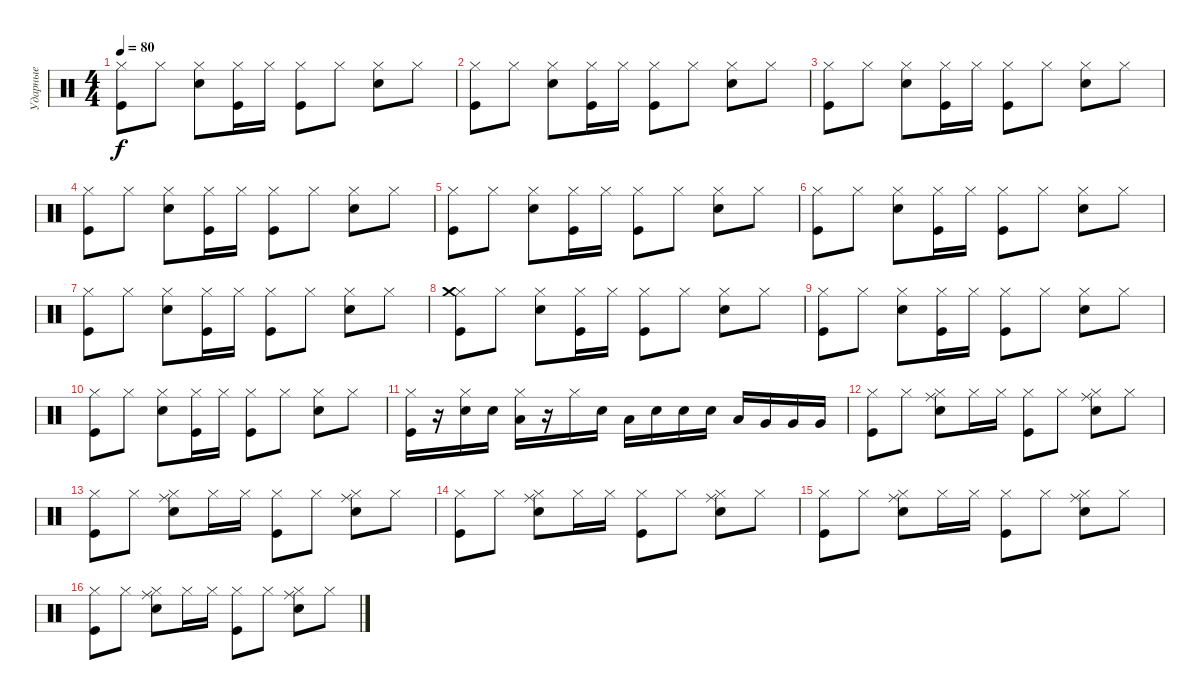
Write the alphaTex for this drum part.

\track ("Ударные" "Ударные") {instrument percussion}
\staff {score}
\articulation defaults
\ts (4 4)
\tempo 80
\clef neutral
\ks c
("Kick (hit)" "Hi-Hat (closed)").8{dy f} "Hi-Hat (closed)".8 ("Snare (hit) 2" "Hi-Hat (closed)").8 ("Kick (hit)" "Hi-Hat (closed)").16 "Hi-Hat (closed)".16 ("Kick (hit)" "Hi-Hat (closed)").8 "Hi-Hat (closed)".8 ("Snare (hit) 2" "Hi-Hat (closed)").8 "Hi-Hat (closed)".8 |
("Kick (hit)" "Hi-Hat (closed)").8 "Hi-Hat (closed)".8 ("Snare (hit) 2" "Hi-Hat (closed)").8 ("Kick (hit)" "Hi-Hat (closed)").16 "Hi-Hat (closed)".16 ("Kick (hit)" "Hi-Hat (closed)").8 "Hi-Hat (closed)".8 ("Snare (hit) 2" "Hi-Hat (closed)").8 "Hi-Hat (closed)".8 |
("Kick (hit)" "Hi-Hat (closed)").8 "Hi-Hat (closed)".8 ("Snare (hit) 2" "Hi-Hat (closed)").8 ("Kick (hit)" "Hi-Hat (closed)").16 "Hi-Hat (closed)".16 ("Kick (hit)" "Hi-Hat (closed)").8 "Hi-Hat (closed)".8 ("Snare (hit) 2" "Hi-Hat (closed)").8 "Hi-Hat (closed)".8 |
("Kick (hit)" "Hi-Hat (closed)").8 "Hi-Hat (closed)".8 ("Snare (hit) 2" "Hi-Hat (closed)").8 ("Kick (hit)" "Hi-Hat (closed)").16 "Hi-Hat (closed)".16 ("Kick (hit)" "Hi-Hat (closed)").8 "Hi-Hat (closed)".8 ("Snare (hit) 2" "Hi-Hat (closed)").8 "Hi-Hat (closed)".8 |
("Kick (hit)" "Hi-Hat (closed)").8 "Hi-Hat (closed)".8 ("Snare (hit) 2" "Hi-Hat (closed)").8 ("Kick (hit)" "Hi-Hat (closed)").16 "Hi-Hat (closed)".16 ("Kick (hit)" "Hi-Hat (closed)").8 "Hi-Hat (closed)".8 ("Snare (hit) 2" "Hi-Hat (closed)").8 "Hi-Hat (closed)".8 |
("Kick (hit)" "Hi-Hat (closed)").8 "Hi-Hat (closed)".8 ("Snare (hit) 2" "Hi-Hat (closed)").8 ("Kick (hit)" "Hi-Hat (closed)").16 "Hi-Hat (closed)".16 ("Kick (hit)" "Hi-Hat (closed)").8 "Hi-Hat (closed)".8 ("Snare (hit) 2" "Hi-Hat (closed)").8 "Hi-Hat (closed)".8 |
("Kick (hit)" "Hi-Hat (closed)").8 "Hi-Hat (closed)".8 ("Snare (hit) 2" "Hi-Hat (closed)").8 ("Kick (hit)" "Hi-Hat (closed)").16 "Hi-Hat (closed)".16 ("Kick (hit)" "Hi-Hat (closed)").8 "Hi-Hat (closed)".8 ("Snare (hit) 2" "Hi-Hat (closed)").8 "Hi-Hat (closed)".8 |
("Kick (hit)" "Hi-Hat (closed)" "Crash medium (hit)").8 "Hi-Hat (closed)".8 ("Snare (hit) 2" "Hi-Hat (closed)").8 ("Kick (hit)" "Hi-Hat (closed)").16 "Hi-Hat (closed)".16 ("Kick (hit)" "Hi-Hat (closed)").8 "Hi-Hat (closed)".8 ("Snare (hit) 2" "Hi-Hat (closed)").8 "Hi-Hat (closed)".8 |
("Kick (hit)" "Hi-Hat (closed)").8 "Hi-Hat (closed)".8 ("Snare (hit) 2" "Hi-Hat (closed)").8 ("Kick (hit)" "Hi-Hat (closed)").16 "Hi-Hat (closed)".16 ("Kick (hit)" "Hi-Hat (closed)").8 "Hi-Hat (closed)".8 ("Snare (hit) 2" "Hi-Hat (closed)").8 "Hi-Hat (closed)".8 |
("Kick (hit)" "Hi-Hat (closed)").8 "Hi-Hat (closed)".8 ("Snare (hit) 2" "Hi-Hat (closed)").8 ("Kick (hit)" "Hi-Hat (closed)").16 "Hi-Hat (closed)".16 ("Kick (hit)" "Hi-Hat (closed)").8 "Hi-Hat (closed)".8 ("Snare (hit) 2" "Hi-Hat (closed)").8 "Hi-Hat (closed)".8 |
("Kick (hit)" "Hi-Hat (closed)").16 r.16 ("Snare (hit) 2" "Hi-Hat (closed)").16 "Snare (hit) 2".16 ("Low Tom (hit)" "Hi-Hat (closed)").16 r.16 "Hi-Hat (closed)".16 "Snare (hit) 2".16 "Low Tom (hit)".16 "Snare (hit) 2".16 "Snare (hit) 2".16 "Snare (hit) 2".16 "Low Tom (hit)".16 "Very Low Tom (hit)".16 "Very Low Tom (hit)".16 "Very Low Tom (hit)".16 |
("Kick (hit)" "Hi-Hat (closed)").8 "Hi-Hat (closed)".8 ("Snare (hit) 2" "Hi-Hat (closed)" "Ride (middle)").8 "Hi-Hat (closed)".16 "Hi-Hat (closed)".16 ("Kick (hit)" "Hi-Hat (closed)").8 "Hi-Hat (closed)".8 ("Snare (hit) 2" "Hi-Hat (closed)" "Ride (middle)").8 "Hi-Hat (closed)".8 |
("Kick (hit)" "Hi-Hat (closed)").8 "Hi-Hat (closed)".8 ("Snare (hit) 2" "Hi-Hat (closed)" "Ride (middle)").8 "Hi-Hat (closed)".16 "Hi-Hat (closed)".16 ("Kick (hit)" "Hi-Hat (closed)").8 "Hi-Hat (closed)".8 ("Snare (hit) 2" "Hi-Hat (closed)" "Ride (middle)").8 "Hi-Hat (closed)".8 |
("Kick (hit)" "Hi-Hat (closed)").8 "Hi-Hat (closed)".8 ("Snare (hit) 2" "Hi-Hat (closed)" "Ride (middle)").8 "Hi-Hat (closed)".16 "Hi-Hat (closed)".16 ("Kick (hit)" "Hi-Hat (closed)").8 "Hi-Hat (closed)".8 ("Snare (hit) 2" "Hi-Hat (closed)" "Ride (middle)").8 "Hi-Hat (closed)".8 |
("Kick (hit)" "Hi-Hat (closed)").8 "Hi-Hat (closed)".8 ("Snare (hit) 2" "Hi-Hat (closed)" "Ride (middle)").8 "Hi-Hat (closed)".16 "Hi-Hat (closed)".16 ("Kick (hit)" "Hi-Hat (closed)").8 "Hi-Hat (closed)".8 ("Snare (hit) 2" "Hi-Hat (closed)" "Ride (middle)").8 "Hi-Hat (closed)".8 |
("Kick (hit)" "Hi-Hat (closed)").8 "Hi-Hat (closed)".8 ("Snare (hit) 2" "Hi-Hat (closed)" "Ride (middle)").8 "Hi-Hat (closed)".16 "Hi-Hat (closed)".16 ("Kick (hit)" "Hi-Hat (closed)").8 "Hi-Hat (closed)".8 ("Snare (hit) 2" "Hi-Hat (closed)" "Ride (middle)").8 "Hi-Hat (closed)".8
